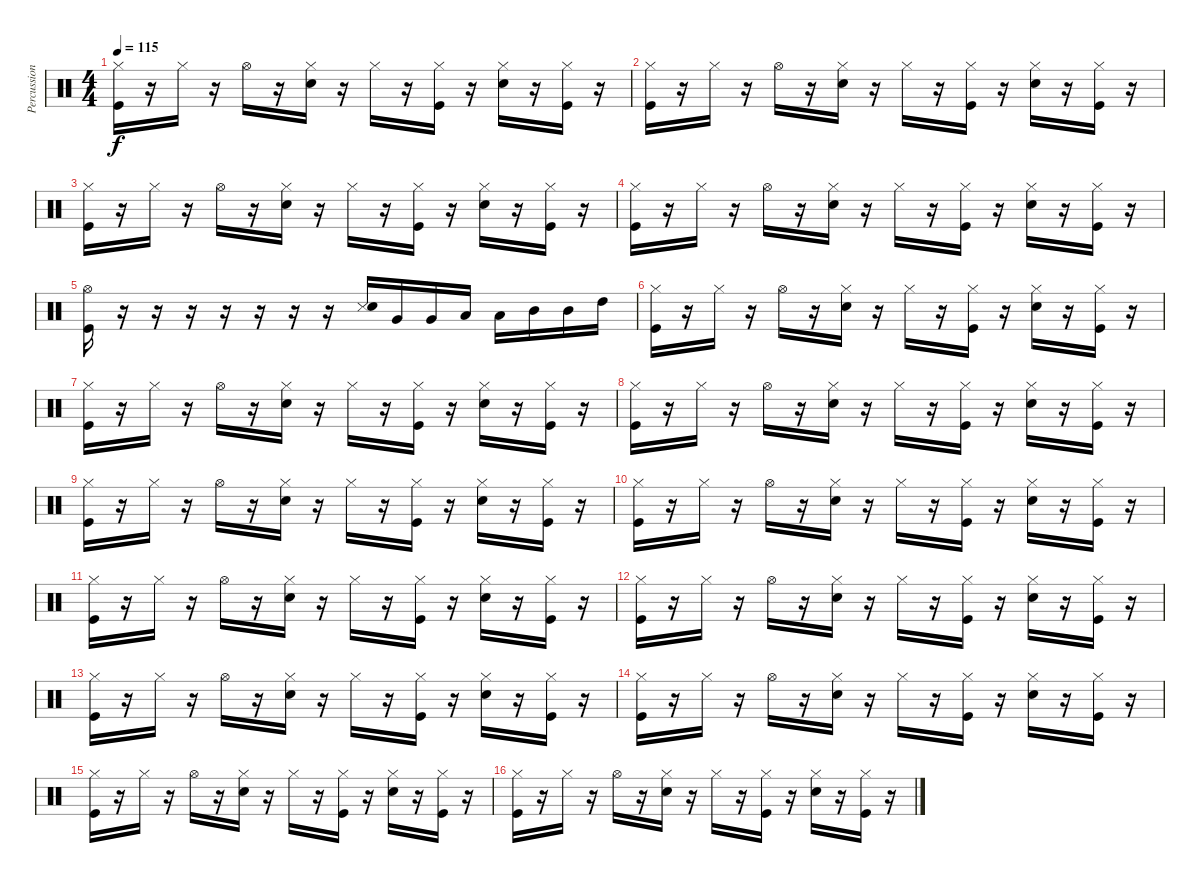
\track ("Percussion" "Percussion") {instrument percussion}
\staff {score}
\articulation defaults
\ts (4 4)
\tempo 115
\clef neutral
\ks c
("Hi-Hat (closed)" "Kick (hit)").16{dy f} r.16 "Hi-Hat (closed)".16 r.16 "Hi-Hat (open)".16 r.16 ("Hi-Hat (closed)" "Snare (hit) 2").16 r.16 "Hi-Hat (closed)".16 r.16 ("Hi-Hat (closed)" "Kick (hit)").16 r.16 ("Hi-Hat (closed)" "Snare (hit) 2").16 r.16 ("Hi-Hat (closed)" "Kick (hit)").16 r.16 |
("Hi-Hat (closed)" "Kick (hit)").16 r.16 "Hi-Hat (closed)".16 r.16 "Hi-Hat (open)".16 r.16 ("Hi-Hat (closed)" "Snare (hit) 2").16 r.16 "Hi-Hat (closed)".16 r.16 ("Hi-Hat (closed)" "Kick (hit)").16 r.16 ("Hi-Hat (closed)" "Snare (hit) 2").16 r.16 ("Hi-Hat (closed)" "Kick (hit)").16 r.16 |
("Hi-Hat (closed)" "Kick (hit)").16 r.16 "Hi-Hat (closed)".16 r.16 "Hi-Hat (open)".16 r.16 ("Hi-Hat (closed)" "Snare (hit) 2").16 r.16 "Hi-Hat (closed)".16 r.16 ("Hi-Hat (closed)" "Kick (hit)").16 r.16 ("Hi-Hat (closed)" "Snare (hit) 2").16 r.16 ("Hi-Hat (closed)" "Kick (hit)").16 r.16 |
("Hi-Hat (closed)" "Kick (hit)").16 r.16 "Hi-Hat (closed)".16 r.16 "Hi-Hat (open)".16 r.16 ("Hi-Hat (closed)" "Snare (hit) 2").16 r.16 "Hi-Hat (closed)".16 r.16 ("Hi-Hat (closed)" "Kick (hit)").16 r.16 ("Hi-Hat (closed)" "Snare (hit) 2").16 r.16 ("Hi-Hat (closed)" "Kick (hit)").16 r.16 |
("Hi-Hat (open)" "Kick (hit)").16 r.16 r.16 r.16 r.16 r.16 r.16 r.16 ("Snare (side stick) 3" "Snare (hit) 2").16 "Very Low Tom (hit)".16 "Very Low Tom (hit)".16 "Low Tom (hit)".16 "Low Tom (hit)".16 "Mid Tom (hit)".16 "Mid Tom (hit)".16 "High Tom (hit)".16 |
("Hi-Hat (closed)" "Kick (hit)").16 r.16 "Hi-Hat (closed)".16 r.16 "Hi-Hat (open)".16 r.16 ("Hi-Hat (closed)" "Snare (hit) 2").16 r.16 "Hi-Hat (closed)".16 r.16 ("Hi-Hat (closed)" "Kick (hit)").16 r.16 ("Hi-Hat (closed)" "Snare (hit) 2").16 r.16 ("Hi-Hat (closed)" "Kick (hit)").16 r.16 |
("Hi-Hat (closed)" "Kick (hit)").16 r.16 "Hi-Hat (closed)".16 r.16 "Hi-Hat (open)".16 r.16 ("Hi-Hat (closed)" "Snare (hit) 2").16 r.16 "Hi-Hat (closed)".16 r.16 ("Hi-Hat (closed)" "Kick (hit)").16 r.16 ("Hi-Hat (closed)" "Snare (hit) 2").16 r.16 ("Hi-Hat (closed)" "Kick (hit)").16 r.16 |
("Hi-Hat (closed)" "Kick (hit)").16 r.16 "Hi-Hat (closed)".16 r.16 "Hi-Hat (open)".16 r.16 ("Hi-Hat (closed)" "Snare (hit) 2").16 r.16 "Hi-Hat (closed)".16 r.16 ("Hi-Hat (closed)" "Kick (hit)").16 r.16 ("Hi-Hat (closed)" "Snare (hit) 2").16 r.16 ("Hi-Hat (closed)" "Kick (hit)").16 r.16 |
("Hi-Hat (closed)" "Kick (hit)").16 r.16 "Hi-Hat (closed)".16 r.16 "Hi-Hat (open)".16 r.16 ("Hi-Hat (closed)" "Snare (hit) 2").16 r.16 "Hi-Hat (closed)".16 r.16 ("Hi-Hat (closed)" "Kick (hit)").16 r.16 ("Hi-Hat (closed)" "Snare (hit) 2").16 r.16 ("Hi-Hat (closed)" "Kick (hit)").16 r.16 |
("Hi-Hat (closed)" "Kick (hit)").16 r.16 "Hi-Hat (closed)".16 r.16 "Hi-Hat (open)".16 r.16 ("Hi-Hat (closed)" "Snare (hit) 2").16 r.16 "Hi-Hat (closed)".16 r.16 ("Hi-Hat (closed)" "Kick (hit)").16 r.16 ("Hi-Hat (closed)" "Snare (hit) 2").16 r.16 ("Hi-Hat (closed)" "Kick (hit)").16 r.16 |
("Hi-Hat (closed)" "Kick (hit)").16 r.16 "Hi-Hat (closed)".16 r.16 "Hi-Hat (open)".16 r.16 ("Hi-Hat (closed)" "Snare (hit) 2").16 r.16 "Hi-Hat (closed)".16 r.16 ("Hi-Hat (closed)" "Kick (hit)").16 r.16 ("Hi-Hat (closed)" "Snare (hit) 2").16 r.16 ("Hi-Hat (closed)" "Kick (hit)").16 r.16 |
("Hi-Hat (closed)" "Kick (hit)").16 r.16 "Hi-Hat (closed)".16 r.16 "Hi-Hat (open)".16 r.16 ("Hi-Hat (closed)" "Snare (hit) 2").16 r.16 "Hi-Hat (closed)".16 r.16 ("Hi-Hat (closed)" "Kick (hit)").16 r.16 ("Hi-Hat (closed)" "Snare (hit) 2").16 r.16 ("Hi-Hat (closed)" "Kick (hit)").16 r.16 |
("Hi-Hat (closed)" "Kick (hit)").16 r.16 "Hi-Hat (closed)".16 r.16 "Hi-Hat (open)".16 r.16 ("Hi-Hat (closed)" "Snare (hit) 2").16 r.16 "Hi-Hat (closed)".16 r.16 ("Hi-Hat (closed)" "Kick (hit)").16 r.16 ("Hi-Hat (closed)" "Snare (hit) 2").16 r.16 ("Hi-Hat (closed)" "Kick (hit)").16 r.16 |
("Hi-Hat (closed)" "Kick (hit)").16 r.16 "Hi-Hat (closed)".16 r.16 "Hi-Hat (open)".16 r.16 ("Hi-Hat (closed)" "Snare (hit) 2").16 r.16 "Hi-Hat (closed)".16 r.16 ("Hi-Hat (closed)" "Kick (hit)").16 r.16 ("Hi-Hat (closed)" "Snare (hit) 2").16 r.16 ("Hi-Hat (closed)" "Kick (hit)").16 r.16 |
("Hi-Hat (closed)" "Kick (hit)").16 r.16 "Hi-Hat (closed)".16 r.16 "Hi-Hat (open)".16 r.16 ("Hi-Hat (closed)" "Snare (hit) 2").16 r.16 "Hi-Hat (closed)".16 r.16 ("Hi-Hat (closed)" "Kick (hit)").16 r.16 ("Hi-Hat (closed)" "Snare (hit) 2").16 r.16 ("Hi-Hat (closed)" "Kick (hit)").16 r.16 |
("Hi-Hat (closed)" "Kick (hit)").16 r.16 "Hi-Hat (closed)".16 r.16 "Hi-Hat (open)".16 r.16 ("Hi-Hat (closed)" "Snare (hit) 2").16 r.16 "Hi-Hat (closed)".16 r.16 ("Hi-Hat (closed)" "Kick (hit)").16 r.16 ("Hi-Hat (closed)" "Snare (hit) 2").16 r.16 ("Hi-Hat (closed)" "Kick (hit)").16 r.16
